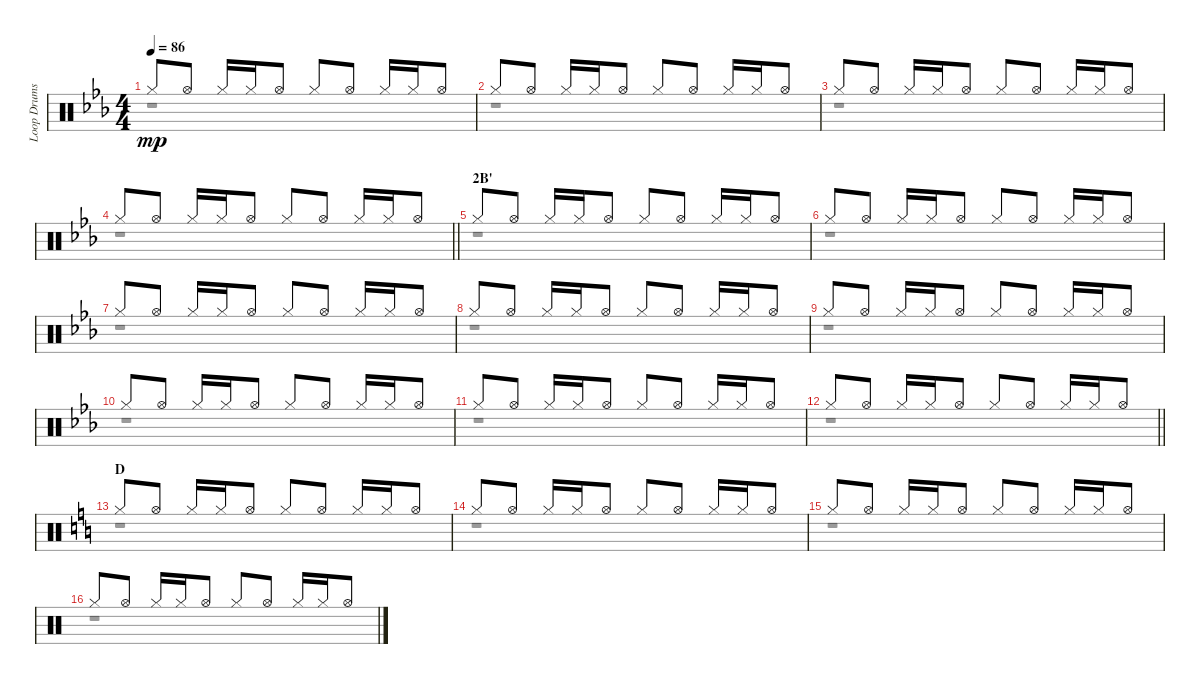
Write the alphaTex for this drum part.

\track ("Loop Drums II" "Loop Drums") {instrument percussion}
\staff {score}
\articulation defaults
\voice
\ts (4 4)
\tempo 86
\clef neutral
\ks eb "Hi-Hat (closed)".8{dy mp} "Hi-Hat (open)".8 "Hi-Hat (closed)".16 "Hi-Hat (closed)".16 "Hi-Hat (open)".8 "Hi-Hat (closed)".8 "Hi-Hat (open)".8 "Hi-Hat (closed)".16 "Hi-Hat (closed)".16 "Hi-Hat (open)".8
|
"Hi-Hat (closed)".8 "Hi-Hat (open)".8 "Hi-Hat (closed)".16 "Hi-Hat (closed)".16 "Hi-Hat (open)".8 "Hi-Hat (closed)".8 "Hi-Hat (open)".8 "Hi-Hat (closed)".16 "Hi-Hat (closed)".16 "Hi-Hat (open)".8 |
"Hi-Hat (closed)".8 "Hi-Hat (open)".8 "Hi-Hat (closed)".16 "Hi-Hat (closed)".16 "Hi-Hat (open)".8 "Hi-Hat (closed)".8 "Hi-Hat (open)".8 "Hi-Hat (closed)".16 "Hi-Hat (closed)".16 "Hi-Hat (open)".8 |
\barLineRight lightlight "Hi-Hat (closed)".8 "Hi-Hat (open)".8 "Hi-Hat (closed)".16 "Hi-Hat (closed)".16 "Hi-Hat (open)".8 "Hi-Hat (closed)".8 "Hi-Hat (open)".8 "Hi-Hat (closed)".16 "Hi-Hat (closed)".16 "Hi-Hat (open)".8
|
\section ("" "2B'")
"Hi-Hat (closed)".8 "Hi-Hat (open)".8 "Hi-Hat (closed)".16 "Hi-Hat (closed)".16 "Hi-Hat (open)".8 "Hi-Hat (closed)".8 "Hi-Hat (open)".8 "Hi-Hat (closed)".16 "Hi-Hat (closed)".16 "Hi-Hat (open)".8 |
"Hi-Hat (closed)".8 "Hi-Hat (open)".8 "Hi-Hat (closed)".16 "Hi-Hat (closed)".16 "Hi-Hat (open)".8 "Hi-Hat (closed)".8 "Hi-Hat (open)".8 "Hi-Hat (closed)".16 "Hi-Hat (closed)".16 "Hi-Hat (open)".8 |
"Hi-Hat (closed)".8 "Hi-Hat (open)".8 "Hi-Hat (closed)".16 "Hi-Hat (closed)".16 "Hi-Hat (open)".8 "Hi-Hat (closed)".8 "Hi-Hat (open)".8 "Hi-Hat (closed)".16 "Hi-Hat (closed)".16 "Hi-Hat (open)".8 |
"Hi-Hat (closed)".8 "Hi-Hat (open)".8 "Hi-Hat (closed)".16 "Hi-Hat (closed)".16 "Hi-Hat (open)".8 "Hi-Hat (closed)".8 "Hi-Hat (open)".8 "Hi-Hat (closed)".16 "Hi-Hat (closed)".16 "Hi-Hat (open)".8 |
"Hi-Hat (closed)".8 "Hi-Hat (open)".8 "Hi-Hat (closed)".16 "Hi-Hat (closed)".16 "Hi-Hat (open)".8 "Hi-Hat (closed)".8 "Hi-Hat (open)".8 "Hi-Hat (closed)".16 "Hi-Hat (closed)".16 "Hi-Hat (open)".8 |
"Hi-Hat (closed)".8 "Hi-Hat (open)".8 "Hi-Hat (closed)".16 "Hi-Hat (closed)".16 "Hi-Hat (open)".8 "Hi-Hat (closed)".8 "Hi-Hat (open)".8 "Hi-Hat (closed)".16 "Hi-Hat (closed)".16 "Hi-Hat (open)".8 |
"Hi-Hat (closed)".8 "Hi-Hat (open)".8 "Hi-Hat (closed)".16 "Hi-Hat (closed)".16 "Hi-Hat (open)".8 "Hi-Hat (closed)".8 "Hi-Hat (open)".8 "Hi-Hat (closed)".16 "Hi-Hat (closed)".16 "Hi-Hat (open)".8 |
\barLineRight lightlight "Hi-Hat (closed)".8 "Hi-Hat (open)".8 "Hi-Hat (closed)".16 "Hi-Hat (closed)".16 "Hi-Hat (open)".8 "Hi-Hat (closed)".8 "Hi-Hat (open)".8 "Hi-Hat (closed)".16 "Hi-Hat (closed)".16 "Hi-Hat (open)".8
|
\section ("" "D")
\ks c "Hi-Hat (closed)".8 "Hi-Hat (open)".8 "Hi-Hat (closed)".16 "Hi-Hat (closed)".16 "Hi-Hat (open)".8 "Hi-Hat (closed)".8 "Hi-Hat (open)".8 "Hi-Hat (closed)".16 "Hi-Hat (closed)".16 "Hi-Hat (open)".8
|
"Hi-Hat (closed)".8 "Hi-Hat (open)".8 "Hi-Hat (closed)".16 "Hi-Hat (closed)".16 "Hi-Hat (open)".8 "Hi-Hat (closed)".8 "Hi-Hat (open)".8 "Hi-Hat (closed)".16 "Hi-Hat (closed)".16 "Hi-Hat (open)".8 |
"Hi-Hat (closed)".8 "Hi-Hat (open)".8 "Hi-Hat (closed)".16 "Hi-Hat (closed)".16 "Hi-Hat (open)".8 "Hi-Hat (closed)".8 "Hi-Hat (open)".8 "Hi-Hat (closed)".16 "Hi-Hat (closed)".16 "Hi-Hat (open)".8 |
"Hi-Hat (closed)".8 "Hi-Hat (open)".8 "Hi-Hat (closed)".16 "Hi-Hat (closed)".16 "Hi-Hat (open)".8 "Hi-Hat (closed)".8 "Hi-Hat (open)".8 "Hi-Hat (closed)".16 "Hi-Hat (closed)".16 "Hi-Hat (open)".8
\voice
\clef neutral
\ottava regular
\simile none
\ks eb
r.1{dy mp} |
r.1 |
r.1 |
\barLineRight lightlight
r.1 |
r.1 |
r.1 |
r.1 |
r.1 |
r.1 |
r.1 |
r.1 |
\barLineRight lightlight
r.1 |
\ks c
r.1 |
r.1 |
r.1 |
r.1
